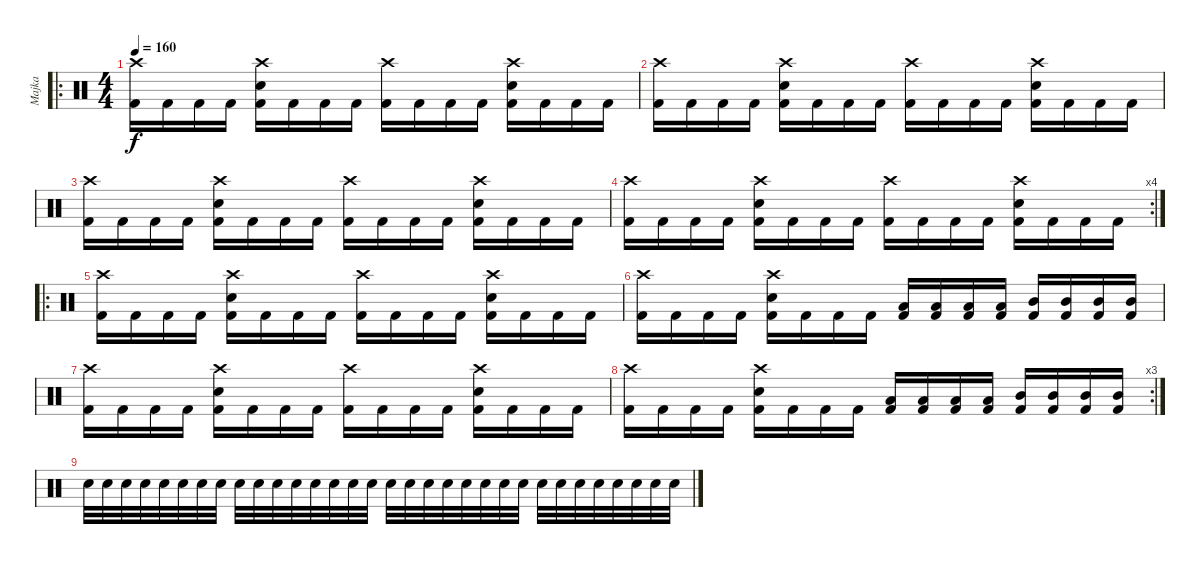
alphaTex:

\track ("Majka" "Majka") {instrument percussion}
\staff {score}
\articulation defaults
\ro
\ts (4 4)
\tempo 160
\clef neutral
\ks c
("Crash high (hit)" "Kick (hit) 2").16{dy f} "Kick (hit) 2".16 "Kick (hit) 2".16 "Kick (hit) 2".16 ("Electric Snare (hit)" "Crash high (hit)" "Kick (hit) 2").16 "Kick (hit) 2".16 "Kick (hit) 2".16 "Kick (hit) 2".16 ("Crash high (hit)" "Kick (hit) 2").16 "Kick (hit) 2".16 "Kick (hit) 2".16 "Kick (hit) 2".16 ("Electric Snare (hit)" "Crash high (hit)" "Kick (hit) 2").16 "Kick (hit) 2".16 "Kick (hit) 2".16 "Kick (hit) 2".16 |
("Crash high (hit)" "Kick (hit) 2").16 "Kick (hit) 2".16 "Kick (hit) 2".16 "Kick (hit) 2".16 ("Electric Snare (hit)" "Crash high (hit)" "Kick (hit) 2").16 "Kick (hit) 2".16 "Kick (hit) 2".16 "Kick (hit) 2".16 ("Crash high (hit)" "Kick (hit) 2").16 "Kick (hit) 2".16 "Kick (hit) 2".16 "Kick (hit) 2".16 ("Electric Snare (hit)" "Crash high (hit)" "Kick (hit) 2").16 "Kick (hit) 2".16 "Kick (hit) 2".16 "Kick (hit) 2".16 |
("Crash high (hit)" "Kick (hit) 2").16 "Kick (hit) 2".16 "Kick (hit) 2".16 "Kick (hit) 2".16 ("Electric Snare (hit)" "Crash high (hit)" "Kick (hit) 2").16 "Kick (hit) 2".16 "Kick (hit) 2".16 "Kick (hit) 2".16 ("Crash high (hit)" "Kick (hit) 2").16 "Kick (hit) 2".16 "Kick (hit) 2".16 "Kick (hit) 2".16 ("Electric Snare (hit)" "Crash high (hit)" "Kick (hit) 2").16 "Kick (hit) 2".16 "Kick (hit) 2".16 "Kick (hit) 2".16 |
\rc 4
("Crash high (hit)" "Kick (hit) 2").16 "Kick (hit) 2".16 "Kick (hit) 2".16 "Kick (hit) 2".16 ("Electric Snare (hit)" "Crash high (hit)" "Kick (hit) 2").16 "Kick (hit) 2".16 "Kick (hit) 2".16 "Kick (hit) 2".16 ("Crash high (hit)" "Kick (hit) 2").16 "Kick (hit) 2".16 "Kick (hit) 2".16 "Kick (hit) 2".16 ("Electric Snare (hit)" "Crash high (hit)" "Kick (hit) 2").16 "Kick (hit) 2".16 "Kick (hit) 2".16 "Kick (hit) 2".16 |
\ro
("Crash high (hit)" "Kick (hit) 2").16 "Kick (hit) 2".16 "Kick (hit) 2".16 "Kick (hit) 2".16 ("Electric Snare (hit)" "Crash high (hit)" "Kick (hit) 2").16 "Kick (hit) 2".16 "Kick (hit) 2".16 "Kick (hit) 2".16 ("Crash high (hit)" "Kick (hit) 2").16 "Kick (hit) 2".16 "Kick (hit) 2".16 "Kick (hit) 2".16 ("Electric Snare (hit)" "Crash high (hit)" "Kick (hit) 2").16 "Kick (hit) 2".16 "Kick (hit) 2".16 "Kick (hit) 2".16 |
("Crash high (hit)" "Kick (hit) 2").16 "Kick (hit) 2".16 "Kick (hit) 2".16 "Kick (hit) 2".16 ("Electric Snare (hit)" "Crash high (hit)" "Kick (hit) 2").16 "Kick (hit) 2".16 "Kick (hit) 2".16 "Kick (hit) 2".16 ("Low Tom (hit)" "Kick (hit) 2").16 ("Low Tom (hit)" "Kick (hit) 2").16 ("Low Tom (hit)" "Kick (hit) 2").16 ("Low Tom (hit)" "Kick (hit) 2").16 ("Mid Tom (hit)" "Kick (hit) 2").16 ("Mid Tom (hit)" "Kick (hit) 2").16 ("Mid Tom (hit)" "Kick (hit) 2").16 ("Mid Tom (hit)" "Kick (hit) 2").16 |
("Crash high (hit)" "Kick (hit) 2").16 "Kick (hit) 2".16 "Kick (hit) 2".16 "Kick (hit) 2".16 ("Electric Snare (hit)" "Crash high (hit)" "Kick (hit) 2").16 "Kick (hit) 2".16 "Kick (hit) 2".16 "Kick (hit) 2".16 ("Crash high (hit)" "Kick (hit) 2").16 "Kick (hit) 2".16 "Kick (hit) 2".16 "Kick (hit) 2".16 ("Electric Snare (hit)" "Crash high (hit)" "Kick (hit) 2").16 "Kick (hit) 2".16 "Kick (hit) 2".16 "Kick (hit) 2".16 |
\rc 3
("Crash high (hit)" "Kick (hit) 2").16 "Kick (hit) 2".16 "Kick (hit) 2".16 "Kick (hit) 2".16 ("Electric Snare (hit)" "Crash high (hit)" "Kick (hit) 2").16 "Kick (hit) 2".16 "Kick (hit) 2".16 "Kick (hit) 2".16 ("Low Tom (hit)" "Kick (hit) 2").16 ("Low Tom (hit)" "Kick (hit) 2").16 ("Low Tom (hit)" "Kick (hit) 2").16 ("Low Tom (hit)" "Kick (hit) 2").16 ("Mid Tom (hit)" "Kick (hit) 2").16 ("Mid Tom (hit)" "Kick (hit) 2").16 ("Mid Tom (hit)" "Kick (hit) 2").16 ("Mid Tom (hit)" "Kick (hit) 2").16 |
"Electric Snare (hit)".32 "Electric Snare (hit)".32 "Electric Snare (hit)".32 "Electric Snare (hit)".32 "Electric Snare (hit)".32 "Electric Snare (hit)".32 "Electric Snare (hit)".32 "Electric Snare (hit)".32 "Electric Snare (hit)".32 "Electric Snare (hit)".32 "Electric Snare (hit)".32 "Electric Snare (hit)".32 "Electric Snare (hit)".32 "Electric Snare (hit)".32 "Electric Snare (hit)".32 "Electric Snare (hit)".32 "Electric Snare (hit)".32 "Electric Snare (hit)".32 "Electric Snare (hit)".32 "Electric Snare (hit)".32 "Electric Snare (hit)".32 "Electric Snare (hit)".32 "Electric Snare (hit)".32 "Electric Snare (hit)".32 "Electric Snare (hit)".32 "Electric Snare (hit)".32 "Electric Snare (hit)".32 "Electric Snare (hit)".32 "Electric Snare (hit)".32 "Electric Snare (hit)".32 "Electric Snare (hit)".32 "Electric Snare (hit)".32
